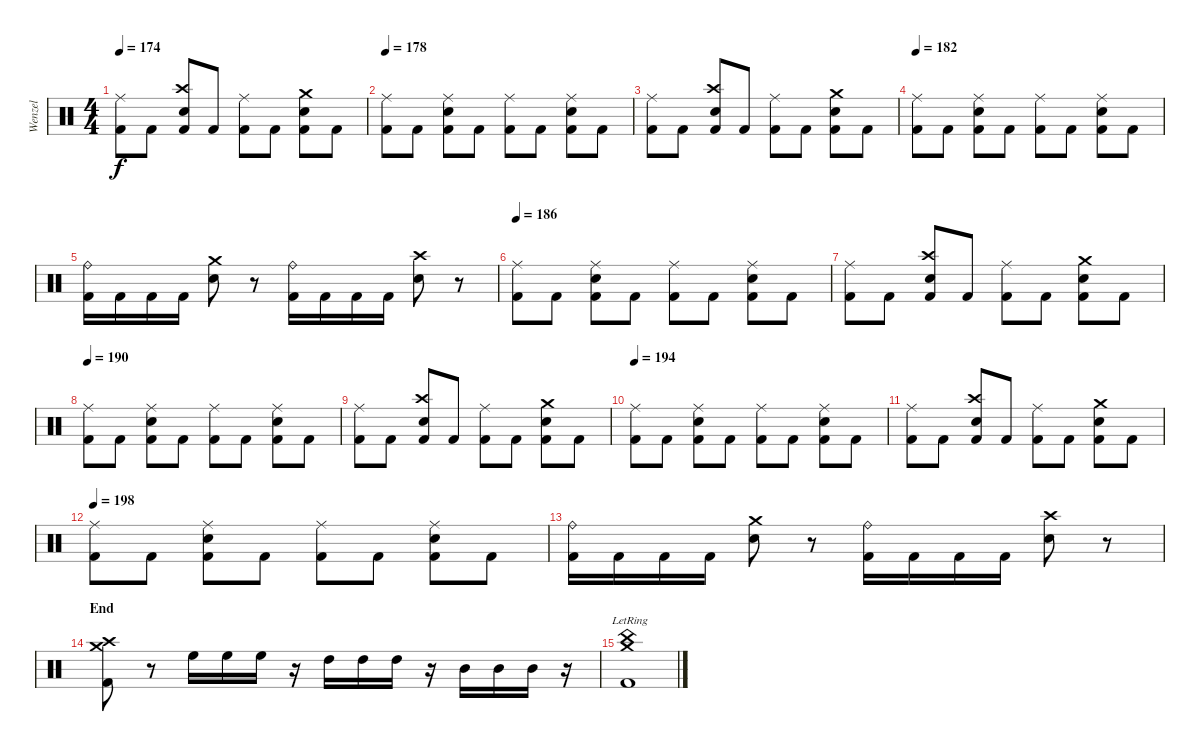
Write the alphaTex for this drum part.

\track ("Wenzel" "Wenzel") {instrument percussion}
\staff {score}
\articulation defaults
\ts (4 4)
\tempo 174
\clef neutral
\ks c
("Ride (middle)" "Kick (hit) 2").8{dy f} "Kick (hit) 2".8 ("Crash high (hit)" "Snare (hit) 2" "Kick (hit) 2").8 "Kick (hit) 2".8 ("Ride (middle)" "Kick (hit) 2").8 "Kick (hit) 2".8 ("Crash medium (hit)" "Snare (hit) 2" "Kick (hit) 2").8 "Kick (hit) 2".8 |
\tempo 178
("Ride (middle)" "Kick (hit) 2").8 "Kick (hit) 2".8 ("Ride (middle)" "Snare (hit) 2" "Kick (hit) 2").8 "Kick (hit) 2".8 ("Ride (middle)" "Kick (hit) 2").8 "Kick (hit) 2".8 ("Ride (middle)" "Snare (hit) 2" "Kick (hit) 2").8 "Kick (hit) 2".8 |
("Ride (middle)" "Kick (hit) 2").8 "Kick (hit) 2".8 ("Crash high (hit)" "Snare (hit) 2" "Kick (hit) 2").8 "Kick (hit) 2".8 ("Ride (middle)" "Kick (hit) 2").8 "Kick (hit) 2".8 ("Crash medium (hit)" "Snare (hit) 2" "Kick (hit) 2").8 "Kick (hit) 2".8 |
\tempo 182
("Ride (middle)" "Kick (hit) 2").8 "Kick (hit) 2".8 ("Ride (middle)" "Snare (hit) 2" "Kick (hit) 2").8 "Kick (hit) 2".8 ("Ride (middle)" "Kick (hit) 2").8 "Kick (hit) 2".8 ("Ride (middle)" "Snare (hit) 2" "Kick (hit) 2").8 "Kick (hit) 2".8 |
("Ride (bell)" "Kick (hit) 2").16 "Kick (hit) 2".16 "Kick (hit) 2".16 "Kick (hit) 2".16 ("Crash medium (hit)" "Snare (hit) 2").8 r.8 ("Ride (bell)" "Kick (hit) 2").16 "Kick (hit) 2".16 "Kick (hit) 2".16 "Kick (hit) 2".16 ("Crash high (hit)" "Snare (hit) 2").8 r.8 |
\tempo 186
("Ride (middle)" "Kick (hit) 2").8 "Kick (hit) 2".8 ("Ride (middle)" "Snare (hit) 2" "Kick (hit) 2").8 "Kick (hit) 2".8 ("Ride (middle)" "Kick (hit) 2").8 "Kick (hit) 2".8 ("Ride (middle)" "Snare (hit) 2" "Kick (hit) 2").8 "Kick (hit) 2".8 |
("Ride (middle)" "Kick (hit) 2").8 "Kick (hit) 2".8 ("Crash high (hit)" "Snare (hit) 2" "Kick (hit) 2").8 "Kick (hit) 2".8 ("Ride (middle)" "Kick (hit) 2").8 "Kick (hit) 2".8 ("Crash medium (hit)" "Snare (hit) 2" "Kick (hit) 2").8 "Kick (hit) 2".8 |
\tempo 190
("Ride (middle)" "Kick (hit) 2").8 "Kick (hit) 2".8 ("Ride (middle)" "Snare (hit) 2" "Kick (hit) 2").8 "Kick (hit) 2".8 ("Ride (middle)" "Kick (hit) 2").8 "Kick (hit) 2".8 ("Ride (middle)" "Snare (hit) 2" "Kick (hit) 2").8 "Kick (hit) 2".8 |
("Ride (middle)" "Kick (hit) 2").8 "Kick (hit) 2".8 ("Crash high (hit)" "Snare (hit) 2" "Kick (hit) 2").8 "Kick (hit) 2".8 ("Ride (middle)" "Kick (hit) 2").8 "Kick (hit) 2".8 ("Crash medium (hit)" "Snare (hit) 2" "Kick (hit) 2").8 "Kick (hit) 2".8 |
\tempo 194
("Ride (middle)" "Kick (hit) 2").8 "Kick (hit) 2".8 ("Ride (middle)" "Snare (hit) 2" "Kick (hit) 2").8 "Kick (hit) 2".8 ("Ride (middle)" "Kick (hit) 2").8 "Kick (hit) 2".8 ("Ride (middle)" "Snare (hit) 2" "Kick (hit) 2").8 "Kick (hit) 2".8 |
("Ride (middle)" "Kick (hit) 2").8 "Kick (hit) 2".8 ("Crash high (hit)" "Snare (hit) 2" "Kick (hit) 2").8 "Kick (hit) 2".8 ("Ride (middle)" "Kick (hit) 2").8 "Kick (hit) 2".8 ("Crash medium (hit)" "Snare (hit) 2" "Kick (hit) 2").8 "Kick (hit) 2".8 |
\tempo 198
("Ride (middle)" "Kick (hit) 2").8 "Kick (hit) 2".8 ("Ride (middle)" "Snare (hit) 2" "Kick (hit) 2").8 "Kick (hit) 2".8 ("Ride (middle)" "Kick (hit) 2").8 "Kick (hit) 2".8 ("Ride (middle)" "Snare (hit) 2" "Kick (hit) 2").8 "Kick (hit) 2".8 |
("Ride (bell)" "Kick (hit) 2").16 "Kick (hit) 2".16 "Kick (hit) 2".16 "Kick (hit) 2".16 ("Crash medium (hit)" "Snare (hit) 2").8 r.8 ("Ride (bell)" "Kick (hit) 2").16 "Kick (hit) 2".16 "Kick (hit) 2".16 "Kick (hit) 2".16 ("Crash high (hit)" "Snare (hit) 2").8 r.8 |
\section ("" "End")
("Crash high (hit)" "Crash medium (hit)" "Kick (hit) 2").8 r.8 "High Floor Tom (hit)".16 "High Floor Tom (hit)".16 "High Floor Tom (hit)".16 r.16 "High Tom (hit)".16 "High Tom (hit)".16 "High Tom (hit)".16 r.16 "Mid Tom (hit)".16 "Mid Tom (hit)".16 "Mid Tom (hit)".16 r.16 |
("Crash medium (hit)"{lr} "China (hit)"{lr} "Kick (hit) 2"{lr}).1
